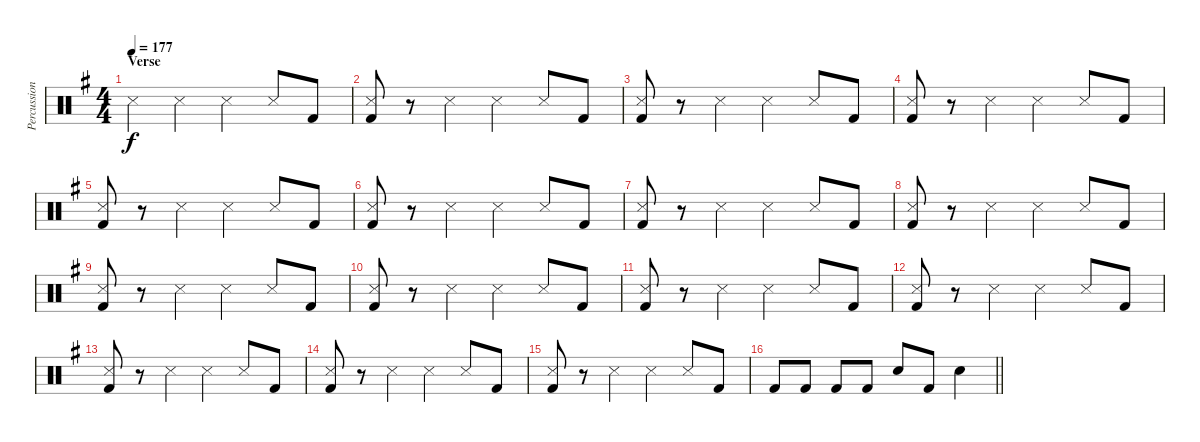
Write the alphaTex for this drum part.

\track ("Percussion" "Percussion") {instrument percussion}
\staff {score}
\articulation defaults
\ts (4 4)
\section ("" "Verse")
\tempo 177
\clef neutral
\ks g "Snare (side stick) 3".4{dy f} "Snare (side stick) 3".4 "Snare (side stick) 3".4 "Snare (side stick) 3".8 "Kick (hit) 2".8
|
("Snare (side stick) 3" "Kick (hit) 2").8 r.8 "Snare (side stick) 3".4 "Snare (side stick) 3".4 "Snare (side stick) 3".8 "Kick (hit) 2".8 |
("Snare (side stick) 3" "Kick (hit) 2").8 r.8 "Snare (side stick) 3".4 "Snare (side stick) 3".4 "Snare (side stick) 3".8 "Kick (hit) 2".8 |
("Snare (side stick) 3" "Kick (hit) 2").8 r.8 "Snare (side stick) 3".4 "Snare (side stick) 3".4 "Snare (side stick) 3".8 "Kick (hit) 2".8 |
("Snare (side stick) 3" "Kick (hit) 2").8 r.8 "Snare (side stick) 3".4 "Snare (side stick) 3".4 "Snare (side stick) 3".8 "Kick (hit) 2".8 |
("Snare (side stick) 3" "Kick (hit) 2").8 r.8 "Snare (side stick) 3".4 "Snare (side stick) 3".4 "Snare (side stick) 3".8 "Kick (hit) 2".8 |
("Snare (side stick) 3" "Kick (hit) 2").8 r.8 "Snare (side stick) 3".4 "Snare (side stick) 3".4 "Snare (side stick) 3".8 "Kick (hit) 2".8 |
("Snare (side stick) 3" "Kick (hit) 2").8 r.8 "Snare (side stick) 3".4 "Snare (side stick) 3".4 "Snare (side stick) 3".8 "Kick (hit) 2".8 |
("Snare (side stick) 3" "Kick (hit) 2").8 r.8 "Snare (side stick) 3".4 "Snare (side stick) 3".4 "Snare (side stick) 3".8 "Kick (hit) 2".8 |
("Snare (side stick) 3" "Kick (hit) 2").8 r.8 "Snare (side stick) 3".4 "Snare (side stick) 3".4 "Snare (side stick) 3".8 "Kick (hit) 2".8 |
("Snare (side stick) 3" "Kick (hit) 2").8 r.8 "Snare (side stick) 3".4 "Snare (side stick) 3".4 "Snare (side stick) 3".8 "Kick (hit) 2".8 |
("Snare (side stick) 3" "Kick (hit) 2").8 r.8 "Snare (side stick) 3".4 "Snare (side stick) 3".4 "Snare (side stick) 3".8 "Kick (hit) 2".8 |
("Snare (side stick) 3" "Kick (hit) 2").8 r.8 "Snare (side stick) 3".4 "Snare (side stick) 3".4 "Snare (side stick) 3".8 "Kick (hit) 2".8 |
("Snare (side stick) 3" "Kick (hit) 2").8 r.8 "Snare (side stick) 3".4 "Snare (side stick) 3".4 "Snare (side stick) 3".8 "Kick (hit) 2".8 |
("Snare (side stick) 3" "Kick (hit) 2").8 r.8 "Snare (side stick) 3".4 "Snare (side stick) 3".4 "Snare (side stick) 3".8 "Kick (hit) 2".8 |
\barLineRight lightlight "Kick (hit) 2".8 "Kick (hit) 2".8 "Kick (hit) 2".8 "Kick (hit) 2".8 "Electric Snare (hit)".8 "Kick (hit) 2".8 "Electric Snare (hit)".4
